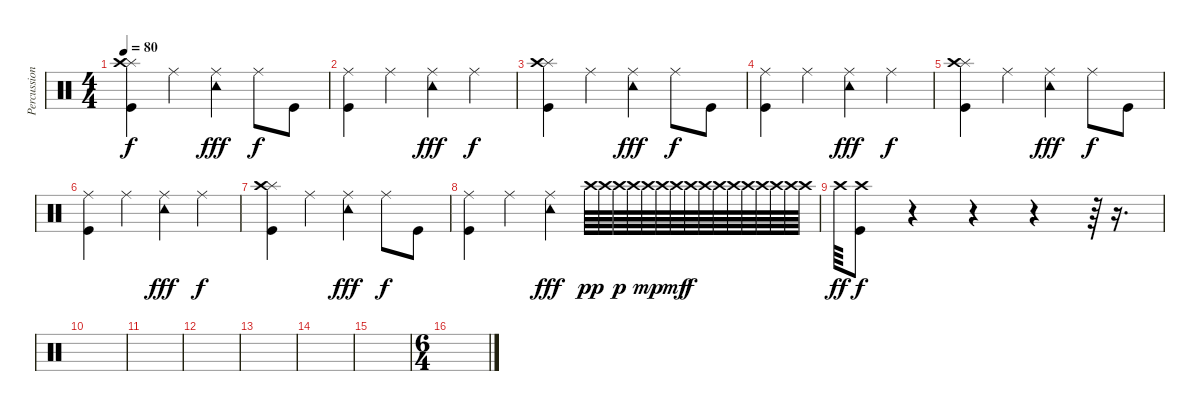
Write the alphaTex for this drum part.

\track ("Percussion" "Percussion") {instrument percussion}
\staff {score}
\articulation defaults
\ts (4 4)
\tempo 80
\clef neutral
\ks c
("Splash (hit)" "Crash high (hit)" "Kick (hit)").4{dy f} "Ride (middle)".4 ("Ride (middle)" "Tambourine (hit)").4{dy fff} "Ride (middle)".8{dy f} "Kick (hit)".8 |
("Ride (middle)" "Kick (hit)").4 "Ride (middle)".4 ("Ride (middle)" "Tambourine (hit)").4{dy fff} "Ride (middle)".4{dy f} |
("Splash (hit)" "Crash high (hit)" "Kick (hit)").4 "Ride (middle)".4 ("Ride (middle)" "Tambourine (hit)").4{dy fff} "Ride (middle)".8{dy f} "Kick (hit)".8 |
("Ride (middle)" "Kick (hit)").4 "Ride (middle)".4 ("Ride (middle)" "Tambourine (hit)").4{dy fff} "Ride (middle)".4{dy f} |
("Splash (hit)" "Crash high (hit)" "Kick (hit)").4 "Ride (middle)".4 ("Ride (middle)" "Tambourine (hit)").4{dy fff} "Ride (middle)".8{dy f} "Kick (hit)".8 |
("Ride (middle)" "Kick (hit)").4 "Ride (middle)".4 ("Ride (middle)" "Tambourine (hit)").4{dy fff} "Ride (middle)".4{dy f} |
("Splash (hit)" "Crash high (hit)" "Kick (hit)").4 "Ride (middle)".4 ("Ride (middle)" "Tambourine (hit)").4{dy fff} "Ride (middle)".8{dy f} "Kick (hit)".8 |
("Ride (middle)" "Kick (hit)").4 "Ride (middle)".4 ("Ride (middle)" "Tambourine (hit)").4{dy fff} "Crash high (hit)".64{dy pp} "Crash high (hit)".64 "Crash high (hit)".64{dy p} "Crash high (hit)".64 "Crash high (hit)".64{dy mp} "Crash high (hit)".64 "Crash high (hit)".64{dy mf} "Crash high (hit)".64{dy f} "Crash high (hit)".64 "Crash high (hit)".64 "Crash high (hit)".64 "Crash high (hit)".64 "Crash high (hit)".64 "Crash high (hit)".64 "Crash high (hit)".64 "Crash high (hit)".64 |
"Crash high (hit)".64{dy ff} ("Crash high (hit)" "Kick (hit)").8{dy f} r.4 r.4 r.4 r.64 r.16{d} |
|
|
|
|
|
|
\ts (6 4)
